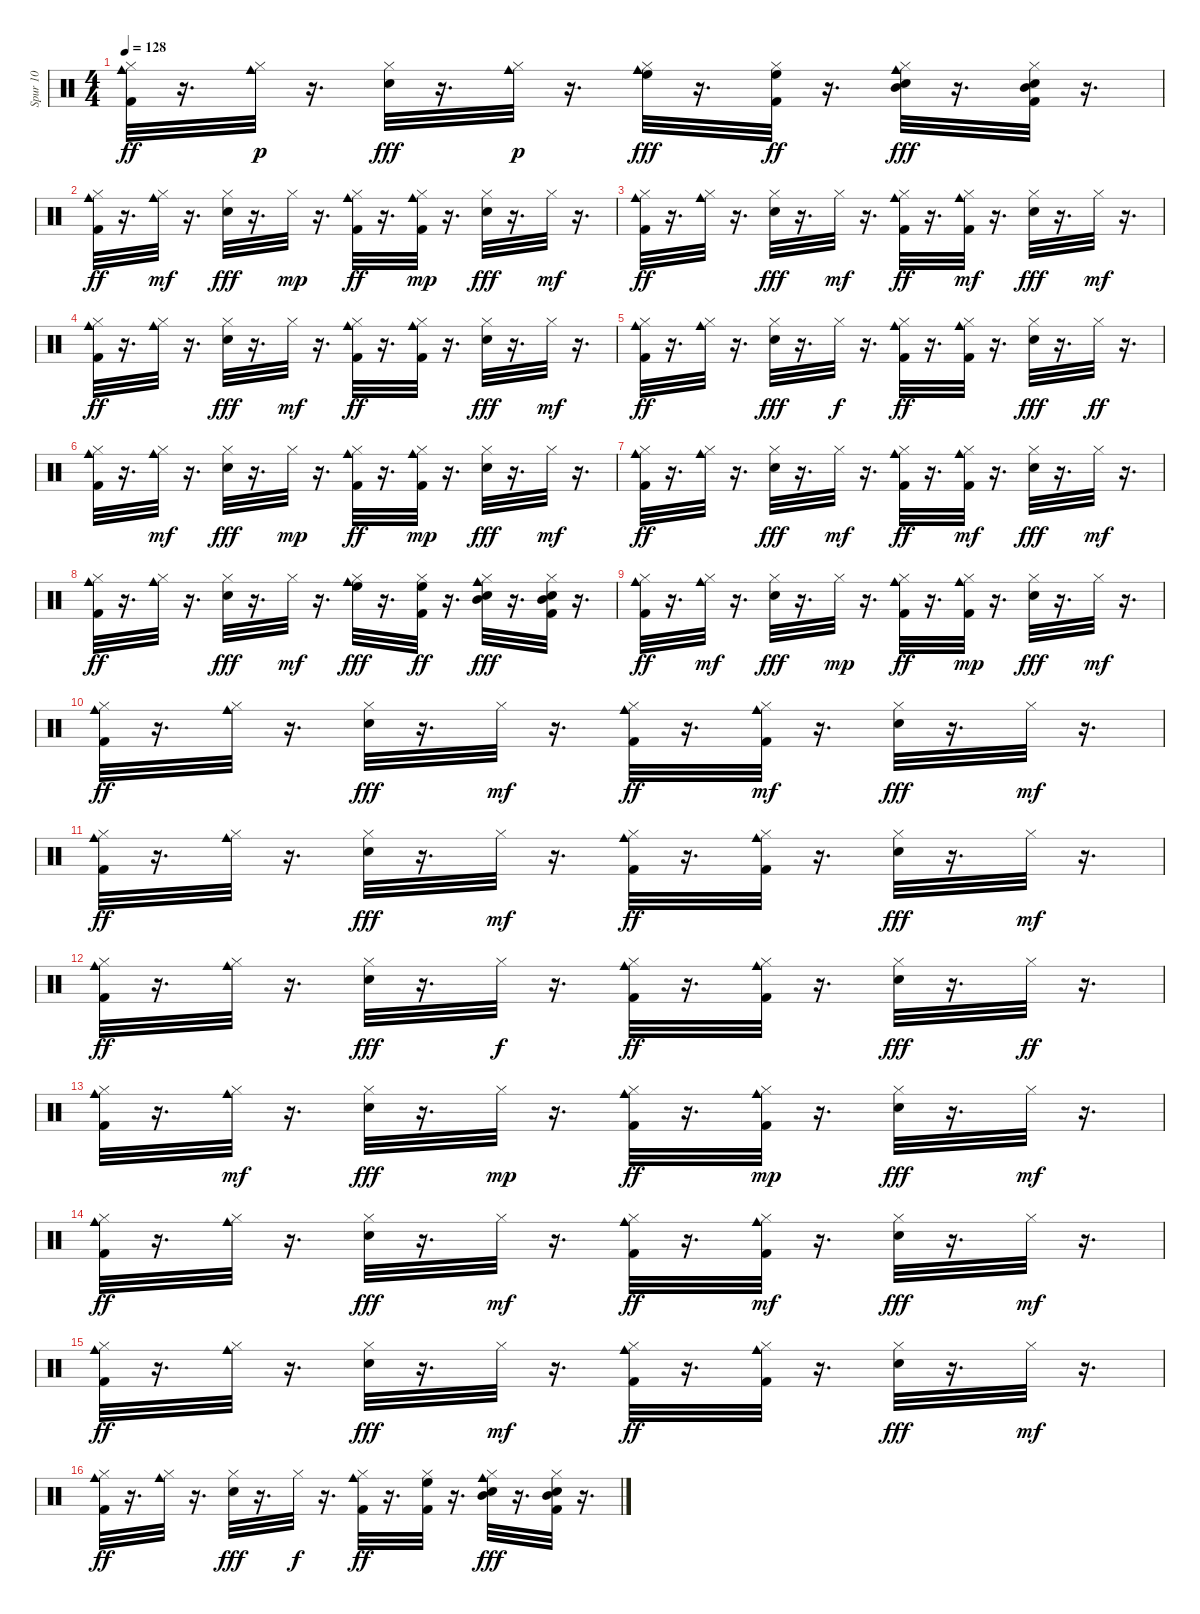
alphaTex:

\track ("Spur 10" "Spur 10") {instrument percussion}
\staff {score}
\articulation defaults
\ts (4 4)
\tempo 128
\clef neutral
\ks c
("Kick (hit) 2" "Hi-Hat (closed)" "Cowbell medium (hit)").32{dy ff} r.16{d} ("Hi-Hat (closed)" "Cowbell medium (hit)").32{dy p} r.16{d} ("Electric Snare (hit)" "Hi-Hat (closed)").32{dy fff} r.16{d} ("Hi-Hat (closed)" "Cowbell medium (hit)").32{dy p} r.16{d} ("Hi-Hat (closed)" "Cowbell medium (hit)" "High Floor Tom (hit)").32{dy fff} r.16{d} ("Kick (hit) 2" "Hi-Hat (closed)" "High Floor Tom (hit)").32{dy ff} r.16{d} ("Electric Snare (hit)" "Hi-Hat (closed)" "Cowbell medium (hit)" "Mid Tom (hit)").32{dy fff} r.16{d} ("Kick (hit) 2" "Hi-Hat (closed)" "Electric Snare (hit)" "Mid Tom (hit)").32 r.16{d} |
("Kick (hit) 2" "Hi-Hat (closed)" "Cowbell medium (hit)").32{dy ff} r.16{d} ("Hi-Hat (closed)" "Cowbell medium (hit)").32{dy mf} r.16{d} ("Electric Snare (hit)" "Hi-Hat (closed)").32{dy fff} r.16{d} "Hi-Hat (closed)".32{dy mp} r.16{d} ("Kick (hit) 2" "Hi-Hat (closed)" "Cowbell medium (hit)").32{dy ff} r.16{d} ("Kick (hit) 2" "Hi-Hat (closed)" "Cowbell medium (hit)").32{dy mp} r.16{d} ("Electric Snare (hit)" "Hi-Hat (closed)").32{dy fff} r.16{d} "Hi-Hat (closed)".32{dy mf} r.16{d} |
("Kick (hit) 2" "Hi-Hat (closed)" "Cowbell medium (hit)").32{dy ff} r.16{d} ("Hi-Hat (closed)" "Cowbell medium (hit)").32 r.16{d} ("Electric Snare (hit)" "Hi-Hat (closed)").32{dy fff} r.16{d} "Hi-Hat (closed)".32{dy mf} r.16{d} ("Kick (hit) 2" "Hi-Hat (closed)" "Cowbell medium (hit)").32{dy ff} r.16{d} ("Kick (hit) 2" "Hi-Hat (closed)" "Cowbell medium (hit)").32{dy mf} r.16{d} ("Electric Snare (hit)" "Hi-Hat (closed)").32{dy fff} r.16{d} "Hi-Hat (closed)".32{dy mf} r.16{d} |
("Kick (hit) 2" "Hi-Hat (closed)" "Cowbell medium (hit)").32{dy ff} r.16{d} ("Hi-Hat (closed)" "Cowbell medium (hit)").32 r.16{d} ("Electric Snare (hit)" "Hi-Hat (closed)").32{dy fff} r.16{d} "Hi-Hat (closed)".32{dy mf} r.16{d} ("Kick (hit) 2" "Hi-Hat (closed)" "Cowbell medium (hit)").32{dy ff} r.16{d} ("Kick (hit) 2" "Hi-Hat (closed)" "Cowbell medium (hit)").32 r.16{d} ("Electric Snare (hit)" "Hi-Hat (closed)").32{dy fff} r.16{d} "Hi-Hat (closed)".32{dy mf} r.16{d} |
("Kick (hit) 2" "Hi-Hat (closed)" "Cowbell medium (hit)").32{dy ff} r.16{d} ("Hi-Hat (closed)" "Cowbell medium (hit)").32 r.16{d} ("Electric Snare (hit)" "Hi-Hat (closed)").32{dy fff} r.16{d} "Hi-Hat (closed)".32{dy f} r.16{d} ("Kick (hit) 2" "Hi-Hat (closed)" "Cowbell medium (hit)").32{dy ff} r.16{d} ("Kick (hit) 2" "Hi-Hat (closed)" "Cowbell medium (hit)").32 r.16{d} ("Electric Snare (hit)" "Hi-Hat (closed)").32{dy fff} r.16{d} "Hi-Hat (closed)".32{dy ff} r.16{d} |
("Kick (hit) 2" "Hi-Hat (closed)" "Cowbell medium (hit)").32 r.16{d} ("Hi-Hat (closed)" "Cowbell medium (hit)").32{dy mf} r.16{d} ("Electric Snare (hit)" "Hi-Hat (closed)").32{dy fff} r.16{d} "Hi-Hat (closed)".32{dy mp} r.16{d} ("Kick (hit) 2" "Hi-Hat (closed)" "Cowbell medium (hit)").32{dy ff} r.16{d} ("Kick (hit) 2" "Hi-Hat (closed)" "Cowbell medium (hit)").32{dy mp} r.16{d} ("Electric Snare (hit)" "Hi-Hat (closed)").32{dy fff} r.16{d} "Hi-Hat (closed)".32{dy mf} r.16{d} |
("Kick (hit) 2" "Hi-Hat (closed)" "Cowbell medium (hit)").32{dy ff} r.16{d} ("Hi-Hat (closed)" "Cowbell medium (hit)").32 r.16{d} ("Electric Snare (hit)" "Hi-Hat (closed)").32{dy fff} r.16{d} "Hi-Hat (closed)".32{dy mf} r.16{d} ("Kick (hit) 2" "Hi-Hat (closed)" "Cowbell medium (hit)").32{dy ff} r.16{d} ("Kick (hit) 2" "Hi-Hat (closed)" "Cowbell medium (hit)").32{dy mf} r.16{d} ("Electric Snare (hit)" "Hi-Hat (closed)").32{dy fff} r.16{d} "Hi-Hat (closed)".32{dy mf} r.16{d} |
("Kick (hit) 2" "Hi-Hat (closed)" "Cowbell medium (hit)").32{dy ff} r.16{d} ("Hi-Hat (closed)" "Cowbell medium (hit)").32 r.16{d} ("Electric Snare (hit)" "Hi-Hat (closed)").32{dy fff} r.16{d} "Hi-Hat (closed)".32{dy mf} r.16{d} ("Hi-Hat (closed)" "Cowbell medium (hit)" "High Floor Tom (hit)").32{dy fff} r.16{d} ("Kick (hit) 2" "Hi-Hat (closed)" "High Floor Tom (hit)").32{dy ff} r.16{d} ("Electric Snare (hit)" "Hi-Hat (closed)" "Cowbell medium (hit)" "Mid Tom (hit)").32{dy fff} r.16{d} ("Kick (hit) 2" "Hi-Hat (closed)" "Electric Snare (hit)" "Mid Tom (hit)").32 r.16{d} |
("Kick (hit) 2" "Hi-Hat (closed)" "Cowbell medium (hit)").32{dy ff} r.16{d} ("Hi-Hat (closed)" "Cowbell medium (hit)").32{dy mf} r.16{d} ("Electric Snare (hit)" "Hi-Hat (closed)").32{dy fff} r.16{d} "Hi-Hat (closed)".32{dy mp} r.16{d} ("Kick (hit) 2" "Hi-Hat (closed)" "Cowbell medium (hit)").32{dy ff} r.16{d} ("Kick (hit) 2" "Hi-Hat (closed)" "Cowbell medium (hit)").32{dy mp} r.16{d} ("Electric Snare (hit)" "Hi-Hat (closed)").32{dy fff} r.16{d} "Hi-Hat (closed)".32{dy mf} r.16{d} |
("Kick (hit) 2" "Hi-Hat (closed)" "Cowbell medium (hit)").32{dy ff} r.16{d} ("Hi-Hat (closed)" "Cowbell medium (hit)").32 r.16{d} ("Electric Snare (hit)" "Hi-Hat (closed)").32{dy fff} r.16{d} "Hi-Hat (closed)".32{dy mf} r.16{d} ("Kick (hit) 2" "Hi-Hat (closed)" "Cowbell medium (hit)").32{dy ff} r.16{d} ("Kick (hit) 2" "Hi-Hat (closed)" "Cowbell medium (hit)").32{dy mf} r.16{d} ("Electric Snare (hit)" "Hi-Hat (closed)").32{dy fff} r.16{d} "Hi-Hat (closed)".32{dy mf} r.16{d} |
("Kick (hit) 2" "Hi-Hat (closed)" "Cowbell medium (hit)").32{dy ff} r.16{d} ("Hi-Hat (closed)" "Cowbell medium (hit)").32 r.16{d} ("Electric Snare (hit)" "Hi-Hat (closed)").32{dy fff} r.16{d} "Hi-Hat (closed)".32{dy mf} r.16{d} ("Kick (hit) 2" "Hi-Hat (closed)" "Cowbell medium (hit)").32{dy ff} r.16{d} ("Kick (hit) 2" "Hi-Hat (closed)" "Cowbell medium (hit)").32 r.16{d} ("Electric Snare (hit)" "Hi-Hat (closed)").32{dy fff} r.16{d} "Hi-Hat (closed)".32{dy mf} r.16{d} |
("Kick (hit) 2" "Hi-Hat (closed)" "Cowbell medium (hit)").32{dy ff} r.16{d} ("Hi-Hat (closed)" "Cowbell medium (hit)").32 r.16{d} ("Electric Snare (hit)" "Hi-Hat (closed)").32{dy fff} r.16{d} "Hi-Hat (closed)".32{dy f} r.16{d} ("Kick (hit) 2" "Hi-Hat (closed)" "Cowbell medium (hit)").32{dy ff} r.16{d} ("Kick (hit) 2" "Hi-Hat (closed)" "Cowbell medium (hit)").32 r.16{d} ("Electric Snare (hit)" "Hi-Hat (closed)").32{dy fff} r.16{d} "Hi-Hat (closed)".32{dy ff} r.16{d} |
("Kick (hit) 2" "Hi-Hat (closed)" "Cowbell medium (hit)").32 r.16{d} ("Hi-Hat (closed)" "Cowbell medium (hit)").32{dy mf} r.16{d} ("Electric Snare (hit)" "Hi-Hat (closed)").32{dy fff} r.16{d} "Hi-Hat (closed)".32{dy mp} r.16{d} ("Kick (hit) 2" "Hi-Hat (closed)" "Cowbell medium (hit)").32{dy ff} r.16{d} ("Kick (hit) 2" "Hi-Hat (closed)" "Cowbell medium (hit)").32{dy mp} r.16{d} ("Electric Snare (hit)" "Hi-Hat (closed)").32{dy fff} r.16{d} "Hi-Hat (closed)".32{dy mf} r.16{d} |
("Kick (hit) 2" "Hi-Hat (closed)" "Cowbell medium (hit)").32{dy ff} r.16{d} ("Hi-Hat (closed)" "Cowbell medium (hit)").32 r.16{d} ("Electric Snare (hit)" "Hi-Hat (closed)").32{dy fff} r.16{d} "Hi-Hat (closed)".32{dy mf} r.16{d} ("Kick (hit) 2" "Hi-Hat (closed)" "Cowbell medium (hit)").32{dy ff} r.16{d} ("Kick (hit) 2" "Hi-Hat (closed)" "Cowbell medium (hit)").32{dy mf} r.16{d} ("Electric Snare (hit)" "Hi-Hat (closed)").32{dy fff} r.16{d} "Hi-Hat (closed)".32{dy mf} r.16{d} |
("Kick (hit) 2" "Hi-Hat (closed)" "Cowbell medium (hit)").32{dy ff} r.16{d} ("Hi-Hat (closed)" "Cowbell medium (hit)").32 r.16{d} ("Electric Snare (hit)" "Hi-Hat (closed)").32{dy fff} r.16{d} "Hi-Hat (closed)".32{dy mf} r.16{d} ("Kick (hit) 2" "Hi-Hat (closed)" "Cowbell medium (hit)").32{dy ff} r.16{d} ("Kick (hit) 2" "Hi-Hat (closed)" "Cowbell medium (hit)").32 r.16{d} ("Electric Snare (hit)" "Hi-Hat (closed)").32{dy fff} r.16{d} "Hi-Hat (closed)".32{dy mf} r.16{d} |
("Kick (hit) 2" "Hi-Hat (closed)" "Cowbell medium (hit)").32{dy ff} r.16{d} ("Hi-Hat (closed)" "Cowbell medium (hit)").32 r.16{d} ("Electric Snare (hit)" "Hi-Hat (closed)").32{dy fff} r.16{d} "Hi-Hat (closed)".32{dy f} r.16{d} ("Kick (hit) 2" "Hi-Hat (closed)" "Cowbell medium (hit)").32{dy ff} r.16{d} ("Kick (hit) 2" "Hi-Hat (closed)" "High Floor Tom (hit)").32 r.16{d} ("Electric Snare (hit)" "Hi-Hat (closed)" "Cowbell medium (hit)" "Mid Tom (hit)").32{dy fff} r.16{d} ("Kick (hit) 2" "Hi-Hat (closed)" "Electric Snare (hit)" "Mid Tom (hit)").32 r.16{d}
